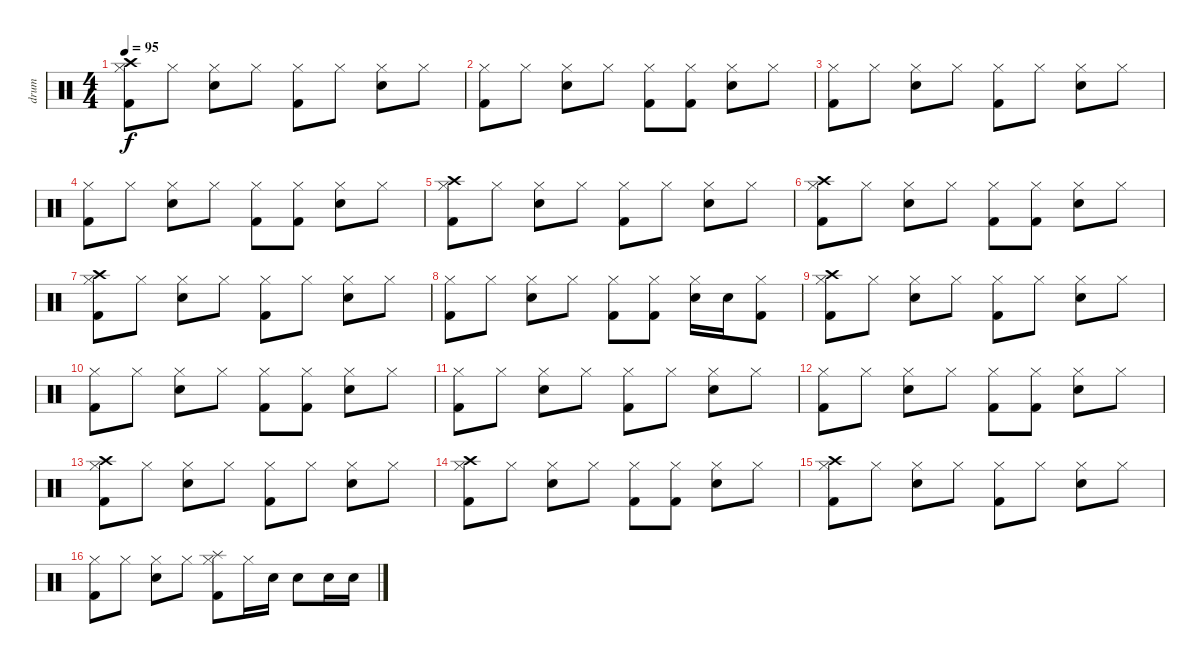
\track ("drum" "drum") {instrument percussion}
\staff {score}
\articulation defaults
\ts (4 4)
\tempo 95
\clef neutral
\ks c
("Crash high (hit)" "Hi-Hat (closed)" "Kick (hit) 2").8{dy f} "Hi-Hat (closed)".8 ("Hi-Hat (closed)" "Electric Snare (hit)").8 "Hi-Hat (closed)".8 ("Hi-Hat (closed)" "Kick (hit) 2").8 "Hi-Hat (closed)".8 ("Hi-Hat (closed)" "Electric Snare (hit)").8 "Hi-Hat (closed)".8 |
("Hi-Hat (closed)" "Kick (hit) 2").8 "Hi-Hat (closed)".8 ("Hi-Hat (closed)" "Electric Snare (hit)").8 "Hi-Hat (closed)".8 ("Hi-Hat (closed)" "Kick (hit) 2").8 ("Hi-Hat (closed)" "Kick (hit) 2").8 ("Hi-Hat (closed)" "Electric Snare (hit)").8 "Hi-Hat (closed)".8 |
("Hi-Hat (closed)" "Kick (hit) 2").8 "Hi-Hat (closed)".8 ("Hi-Hat (closed)" "Electric Snare (hit)").8 "Hi-Hat (closed)".8 ("Hi-Hat (closed)" "Kick (hit) 2").8 "Hi-Hat (closed)".8 ("Hi-Hat (closed)" "Electric Snare (hit)").8 "Hi-Hat (closed)".8 |
("Hi-Hat (closed)" "Kick (hit) 2").8 "Hi-Hat (closed)".8 ("Hi-Hat (closed)" "Electric Snare (hit)").8 "Hi-Hat (closed)".8 ("Hi-Hat (closed)" "Kick (hit) 2").8 ("Hi-Hat (closed)" "Kick (hit) 2").8 ("Hi-Hat (closed)" "Electric Snare (hit)").8 "Hi-Hat (closed)".8 |
("Crash high (hit)" "Hi-Hat (closed)" "Kick (hit) 2").8 "Hi-Hat (closed)".8 ("Hi-Hat (closed)" "Electric Snare (hit)").8 "Hi-Hat (closed)".8 ("Hi-Hat (closed)" "Kick (hit) 2").8 "Hi-Hat (closed)".8 ("Hi-Hat (closed)" "Electric Snare (hit)").8 "Hi-Hat (closed)".8 |
("Crash high (hit)" "Hi-Hat (closed)" "Kick (hit) 2").8 "Hi-Hat (closed)".8 ("Hi-Hat (closed)" "Electric Snare (hit)").8 "Hi-Hat (closed)".8 ("Hi-Hat (closed)" "Kick (hit) 2").8 ("Hi-Hat (closed)" "Kick (hit) 2").8 ("Hi-Hat (closed)" "Electric Snare (hit)").8 "Hi-Hat (closed)".8 |
("Crash high (hit)" "Hi-Hat (closed)" "Kick (hit) 2").8 "Hi-Hat (closed)".8 ("Hi-Hat (closed)" "Electric Snare (hit)").8 "Hi-Hat (closed)".8 ("Hi-Hat (closed)" "Kick (hit) 2").8 "Hi-Hat (closed)".8 ("Hi-Hat (closed)" "Electric Snare (hit)").8 "Hi-Hat (closed)".8 |
("Hi-Hat (closed)" "Kick (hit) 2").8 "Hi-Hat (closed)".8 ("Hi-Hat (closed)" "Electric Snare (hit)").8 "Hi-Hat (closed)".8 ("Hi-Hat (closed)" "Kick (hit) 2").8 ("Hi-Hat (closed)" "Kick (hit) 2").8 ("Hi-Hat (closed)" "Electric Snare (hit)").16 "Electric Snare (hit)".16 ("Hi-Hat (closed)" "Kick (hit) 2").8 |
("Crash high (hit)" "Hi-Hat (closed)" "Kick (hit) 2").8 "Hi-Hat (closed)".8 ("Hi-Hat (closed)" "Electric Snare (hit)").8 "Hi-Hat (closed)".8 ("Hi-Hat (closed)" "Kick (hit) 2").8 "Hi-Hat (closed)".8 ("Hi-Hat (closed)" "Electric Snare (hit)").8 "Hi-Hat (closed)".8 |
("Hi-Hat (closed)" "Kick (hit) 2").8 "Hi-Hat (closed)".8 ("Hi-Hat (closed)" "Electric Snare (hit)").8 "Hi-Hat (closed)".8 ("Hi-Hat (closed)" "Kick (hit) 2").8 ("Hi-Hat (closed)" "Kick (hit) 2").8 ("Hi-Hat (closed)" "Electric Snare (hit)").8 "Hi-Hat (closed)".8 |
("Hi-Hat (closed)" "Kick (hit) 2").8 "Hi-Hat (closed)".8 ("Hi-Hat (closed)" "Electric Snare (hit)").8 "Hi-Hat (closed)".8 ("Hi-Hat (closed)" "Kick (hit) 2").8 "Hi-Hat (closed)".8 ("Hi-Hat (closed)" "Electric Snare (hit)").8 "Hi-Hat (closed)".8 |
("Hi-Hat (closed)" "Kick (hit) 2").8 "Hi-Hat (closed)".8 ("Hi-Hat (closed)" "Electric Snare (hit)").8 "Hi-Hat (closed)".8 ("Hi-Hat (closed)" "Kick (hit) 2").8 ("Hi-Hat (closed)" "Kick (hit) 2").8 ("Hi-Hat (closed)" "Electric Snare (hit)").8 "Hi-Hat (closed)".8 |
("Crash high (hit)" "Hi-Hat (closed)" "Kick (hit) 2").8 "Hi-Hat (closed)".8 ("Hi-Hat (closed)" "Electric Snare (hit)").8 "Hi-Hat (closed)".8 ("Hi-Hat (closed)" "Kick (hit) 2").8 "Hi-Hat (closed)".8 ("Hi-Hat (closed)" "Electric Snare (hit)").8 "Hi-Hat (closed)".8 |
("Crash high (hit)" "Hi-Hat (closed)" "Kick (hit) 2").8 "Hi-Hat (closed)".8 ("Hi-Hat (closed)" "Electric Snare (hit)").8 "Hi-Hat (closed)".8 ("Hi-Hat (closed)" "Kick (hit) 2").8 ("Hi-Hat (closed)" "Kick (hit) 2").8 ("Hi-Hat (closed)" "Electric Snare (hit)").8 "Hi-Hat (closed)".8 |
("Crash high (hit)" "Hi-Hat (closed)" "Kick (hit) 2").8 "Hi-Hat (closed)".8 ("Hi-Hat (closed)" "Electric Snare (hit)").8 "Hi-Hat (closed)".8 ("Hi-Hat (closed)" "Kick (hit) 2").8 "Hi-Hat (closed)".8 ("Hi-Hat (closed)" "Electric Snare (hit)").8 "Hi-Hat (closed)".8 |
("Hi-Hat (closed)" "Kick (hit) 2").8 "Hi-Hat (closed)".8 ("Hi-Hat (closed)" "Electric Snare (hit)").8 "Hi-Hat (closed)".8 ("Splash (hit)" "Hi-Hat (closed)" "Kick (hit) 2").8 "Hi-Hat (closed)".16 "Electric Snare (hit)".16 "Electric Snare (hit)".8 "Electric Snare (hit)".16 "Electric Snare (hit)".16
